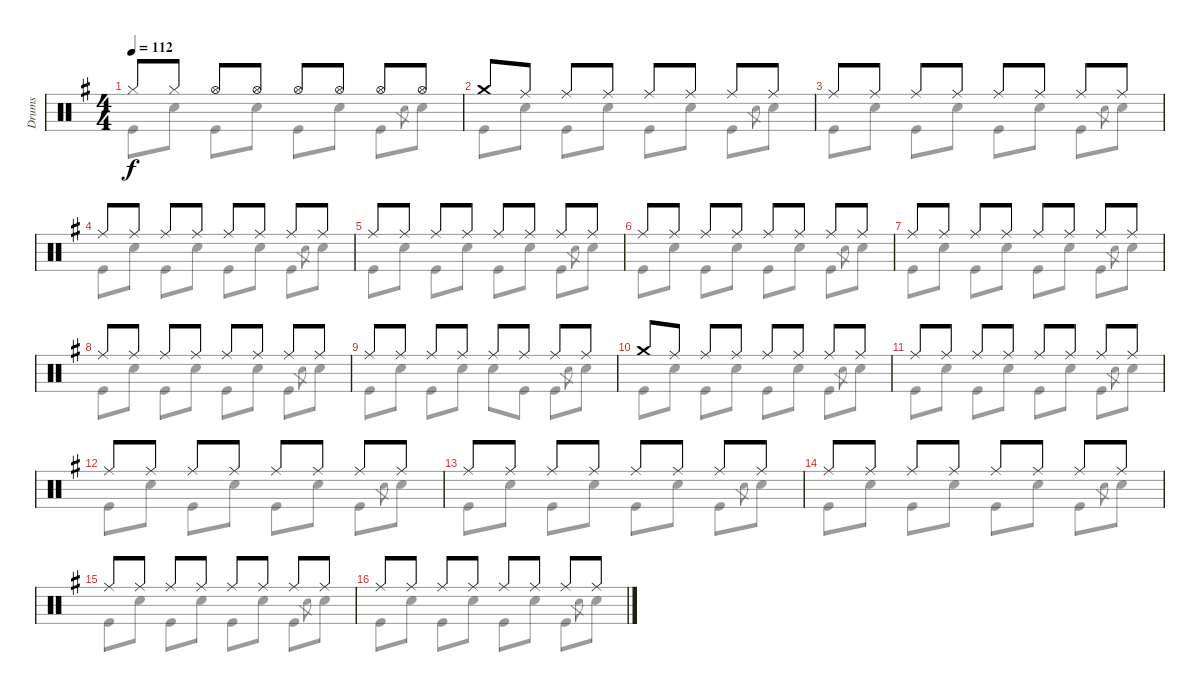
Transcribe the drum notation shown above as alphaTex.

\track ("Drums" "Drums") {instrument percussion}
\staff {score}
\articulation defaults
\voice
\ts (4 4)
\tempo 112
\clef neutral
\ks g "Hi-Hat (closed)".8{dy f} "Hi-Hat (closed)".8 "Hi-Hat (open)".8 "Hi-Hat (open)".8 "Hi-Hat (open)".8 "Hi-Hat (open)".8 "Hi-Hat (open)".8 "Hi-Hat (open)".8
|
"Crash medium (hit)".8 "Ride (middle)".8 "Ride (middle)".8 "Ride (middle)".8 "Ride (middle)".8 "Ride (middle)".8 "Ride (middle)".8 "Ride (middle)".8 |
"Ride (middle)".8 "Ride (middle)".8 "Ride (middle)".8 "Ride (middle)".8 "Ride (middle)".8 "Ride (middle)".8 "Ride (middle)".8 "Ride (middle)".8 |
"Ride (middle)".8 "Ride (middle)".8 "Ride (middle)".8 "Ride (middle)".8 "Ride (middle)".8 "Ride (middle)".8 "Ride (middle)".8 "Ride (middle)".8 |
"Ride (middle)".8 "Ride (middle)".8 "Ride (middle)".8 "Ride (middle)".8 "Ride (middle)".8 "Ride (middle)".8 "Ride (middle)".8 "Ride (middle)".8 |
"Ride (middle)".8 "Ride (middle)".8 "Ride (middle)".8 "Ride (middle)".8 "Ride (middle)".8 "Ride (middle)".8 "Ride (middle)".8 "Ride (middle)".8 |
"Ride (middle)".8 "Ride (middle)".8 "Ride (middle)".8 "Ride (middle)".8 "Ride (middle)".8 "Ride (middle)".8 "Ride (middle)".8 "Ride (middle)".8 |
"Ride (middle)".8 "Ride (middle)".8 "Ride (middle)".8 "Ride (middle)".8 "Ride (middle)".8 "Ride (middle)".8 "Ride (middle)".8 "Ride (middle)".8 |
"Ride (middle)".8 "Ride (middle)".8 "Ride (middle)".8 "Ride (middle)".8 "Ride (middle)".8 "Ride (middle)".8 "Ride (middle)".8 "Ride (middle)".8 |
"Crash medium (hit)".8 "Ride (middle)".8 "Ride (middle)".8 "Ride (middle)".8 "Ride (middle)".8 "Ride (middle)".8 "Ride (middle)".8 "Ride (middle)".8 |
"Ride (middle)".8 "Ride (middle)".8 "Ride (middle)".8 "Ride (middle)".8 "Ride (middle)".8 "Ride (middle)".8 "Ride (middle)".8 "Ride (middle)".8 |
"Ride (middle)".8 "Ride (middle)".8 "Ride (middle)".8 "Ride (middle)".8 "Ride (middle)".8 "Ride (middle)".8 "Ride (middle)".8 "Ride (middle)".8 |
"Ride (middle)".8 "Ride (middle)".8 "Ride (middle)".8 "Ride (middle)".8 "Ride (middle)".8 "Ride (middle)".8 "Ride (middle)".8 "Ride (middle)".8 |
"Ride (middle)".8 "Ride (middle)".8 "Ride (middle)".8 "Ride (middle)".8 "Ride (middle)".8 "Ride (middle)".8 "Ride (middle)".8 "Ride (middle)".8 |
"Ride (middle)".8 "Ride (middle)".8 "Ride (middle)".8 "Ride (middle)".8 "Ride (middle)".8 "Ride (middle)".8 "Ride (middle)".8 "Ride (middle)".8 |
"Ride (middle)".8 "Ride (middle)".8 "Ride (middle)".8 "Ride (middle)".8 "Ride (middle)".8 "Ride (middle)".8 "Ride (middle)".8 "Ride (middle)".8
\voice
\clef neutral
\ottava regular
\simile none
\ks g "Kick (hit)".8{dy f} "Snare (hit) 2".8 "Kick (hit)".8 "Snare (hit) 2".8 "Kick (hit)".8 "Snare (hit) 2".8 "Kick (hit)".8 "Snare (hit) 2".8{gr} "Snare (hit) 2".8
|
"Kick (hit)".8 "Snare (hit) 2".8 "Kick (hit)".8 "Snare (hit) 2".8 "Kick (hit)".8 "Snare (hit) 2".8 "Kick (hit)".8 "Snare (hit) 2".8{gr} "Snare (hit) 2".8 |
"Kick (hit)".8 "Snare (hit) 2".8 "Kick (hit)".8 "Snare (hit) 2".8 "Kick (hit)".8 "Snare (hit) 2".8 "Kick (hit)".8 "Snare (hit) 2".8{gr} "Snare (hit) 2".8 |
"Kick (hit)".8 "Snare (hit) 2".8 "Kick (hit)".8 "Snare (hit) 2".8 "Kick (hit)".8 "Snare (hit) 2".8 "Kick (hit)".8 "Snare (hit) 2".8{gr} "Snare (hit) 2".8 |
"Kick (hit)".8 "Snare (hit) 2".8 "Kick (hit)".8 "Snare (hit) 2".8 "Kick (hit)".8 "Snare (hit) 2".8 "Kick (hit)".8 "Snare (hit) 2".8{gr} "Snare (hit) 2".8 |
"Kick (hit)".8 "Snare (hit) 2".8 "Kick (hit)".8 "Snare (hit) 2".8 "Kick (hit)".8 "Snare (hit) 2".8 "Kick (hit)".8 "Snare (hit) 2".8{gr} "Snare (hit) 2".8 |
"Kick (hit)".8 "Snare (hit) 2".8 "Kick (hit)".8 "Snare (hit) 2".8 "Kick (hit)".8 "Snare (hit) 2".8 "Kick (hit)".8 "Snare (hit) 2".8{gr} "Snare (hit) 2".8 |
"Kick (hit)".8 "Snare (hit) 2".8 "Kick (hit)".8 "Snare (hit) 2".8 "Kick (hit)".8 "Snare (hit) 2".8 "Kick (hit)".8 "Snare (hit) 2".8{gr} "Snare (hit) 2".8 |
"Kick (hit)".8 "Snare (hit) 2".8 "Kick (hit)".8 "Snare (hit) 2".8 "Snare (hit) 2".8 "Kick (hit)".8 "Kick (hit)".8 "Snare (hit) 2".8{gr} "Snare (hit) 2".8 |
"Kick (hit)".8 "Snare (hit) 2".8 "Kick (hit)".8 "Snare (hit) 2".8 "Kick (hit)".8 "Snare (hit) 2".8 "Kick (hit)".8 "Snare (hit) 2".8{gr} "Snare (hit) 2".8 |
"Kick (hit)".8 "Snare (hit) 2".8 "Kick (hit)".8 "Snare (hit) 2".8 "Kick (hit)".8 "Snare (hit) 2".8 "Kick (hit)".8 "Snare (hit) 2".8{gr} "Snare (hit) 2".8 |
"Kick (hit)".8 "Snare (hit) 2".8 "Kick (hit)".8 "Snare (hit) 2".8 "Kick (hit)".8 "Snare (hit) 2".8 "Kick (hit)".8 "Snare (hit) 2".8{gr} "Snare (hit) 2".8 |
"Kick (hit)".8 "Snare (hit) 2".8 "Kick (hit)".8 "Snare (hit) 2".8 "Kick (hit)".8 "Snare (hit) 2".8 "Kick (hit)".8 "Snare (hit) 2".8{gr} "Snare (hit) 2".8 |
"Kick (hit)".8 "Snare (hit) 2".8 "Kick (hit)".8 "Snare (hit) 2".8 "Kick (hit)".8 "Snare (hit) 2".8 "Kick (hit)".8 "Snare (hit) 2".8{gr} "Snare (hit) 2".8 |
"Kick (hit)".8 "Snare (hit) 2".8 "Kick (hit)".8 "Snare (hit) 2".8 "Kick (hit)".8 "Snare (hit) 2".8 "Kick (hit)".8 "Snare (hit) 2".8{gr} "Snare (hit) 2".8 |
"Kick (hit)".8 "Snare (hit) 2".8 "Kick (hit)".8 "Snare (hit) 2".8 "Kick (hit)".8 "Snare (hit) 2".8 "Kick (hit)".8 "Snare (hit) 2".8{gr} "Snare (hit) 2".8
